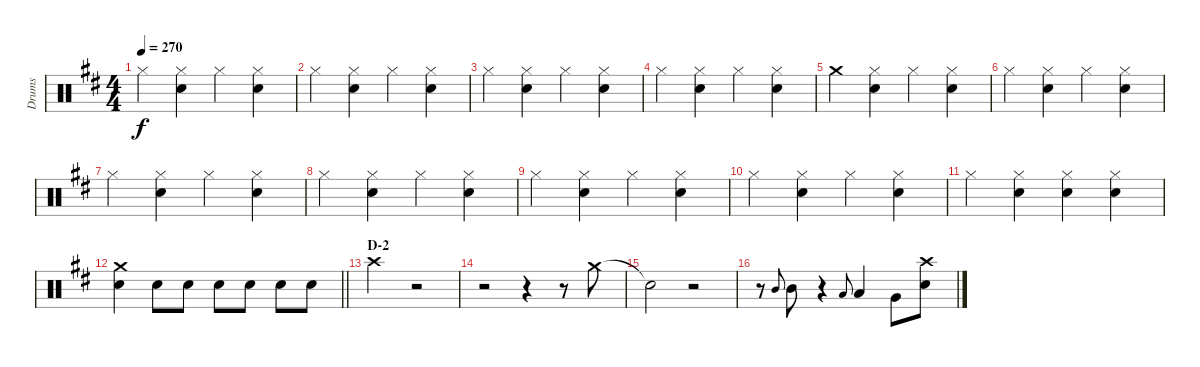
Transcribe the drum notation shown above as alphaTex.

\track ("Drums" "Drums") {instrument percussion}
\staff {score}
\articulation defaults
\ts (4 4)
\tempo 270
\clef neutral
\ks d "Hi-Hat (closed)".4{dy f}
("Hi-Hat (closed)" "Snare (hit) 2").4 "Hi-Hat (closed)".4 ("Hi-Hat (closed)" "Snare (hit) 2").4 |
"Hi-Hat (closed)".4 ("Hi-Hat (closed)" "Snare (hit) 2").4 "Hi-Hat (closed)".4 ("Hi-Hat (closed)" "Snare (hit) 2").4 |
"Hi-Hat (closed)".4 ("Hi-Hat (closed)" "Snare (hit) 2").4 "Hi-Hat (closed)".4 ("Hi-Hat (closed)" "Snare (hit) 2").4 |
"Hi-Hat (closed)".4 ("Hi-Hat (closed)" "Snare (hit) 2").4 "Hi-Hat (closed)".4 ("Hi-Hat (closed)" "Snare (hit) 2").4 |
"Crash medium (hit)".4 ("Hi-Hat (closed)" "Snare (hit) 2").4 "Hi-Hat (closed)".4 ("Hi-Hat (closed)" "Snare (hit) 2").4 |
"Hi-Hat (closed)".4 ("Hi-Hat (closed)" "Snare (hit) 2").4 "Hi-Hat (closed)".4 ("Hi-Hat (closed)" "Snare (hit) 2").4 |
"Hi-Hat (closed)".4 ("Hi-Hat (closed)" "Snare (hit) 2").4 "Hi-Hat (closed)".4 ("Hi-Hat (closed)" "Snare (hit) 2").4 |
"Hi-Hat (closed)".4 ("Hi-Hat (closed)" "Snare (hit) 2").4 "Hi-Hat (closed)".4 ("Hi-Hat (closed)" "Snare (hit) 2").4 |
"Hi-Hat (closed)".4 ("Hi-Hat (closed)" "Snare (hit) 2").4 "Hi-Hat (closed)".4 ("Hi-Hat (closed)" "Snare (hit) 2").4 |
"Hi-Hat (closed)".4 ("Hi-Hat (closed)" "Snare (hit) 2").4 "Hi-Hat (closed)".4 ("Hi-Hat (closed)" "Snare (hit) 2").4 |
"Hi-Hat (closed)".4 ("Hi-Hat (closed)" "Snare (hit) 2").4 ("Hi-Hat (closed)" "Snare (hit) 2").4 ("Hi-Hat (closed)" "Snare (hit) 2").4 |
\barLineRight lightlight
("Crash medium (hit)" "Snare (hit) 2").4 "Snare (hit) 2".8 "Snare (hit) 2".8 "Snare (hit) 2".8 "Snare (hit) 2".8 "Snare (hit) 2".8 "Snare (hit) 2".8 |
\section ("" "D-2")
"Crash high (hit)".2 r.2 |
r.2 r.4 r.8 "Crash medium (hit)".8 |
"Snare (hit)"{t}.2 r.2 |
r.8 "Mid Tom (hit)".8{gr onbeat} "Mid Tom (hit)".8 r.4 "Low Tom (hit)".8{gr onbeat} "Low Tom (hit)".4 "Very Low Tom (hit)".8 ("Crash high (hit)" "Snare (hit) 2").8
